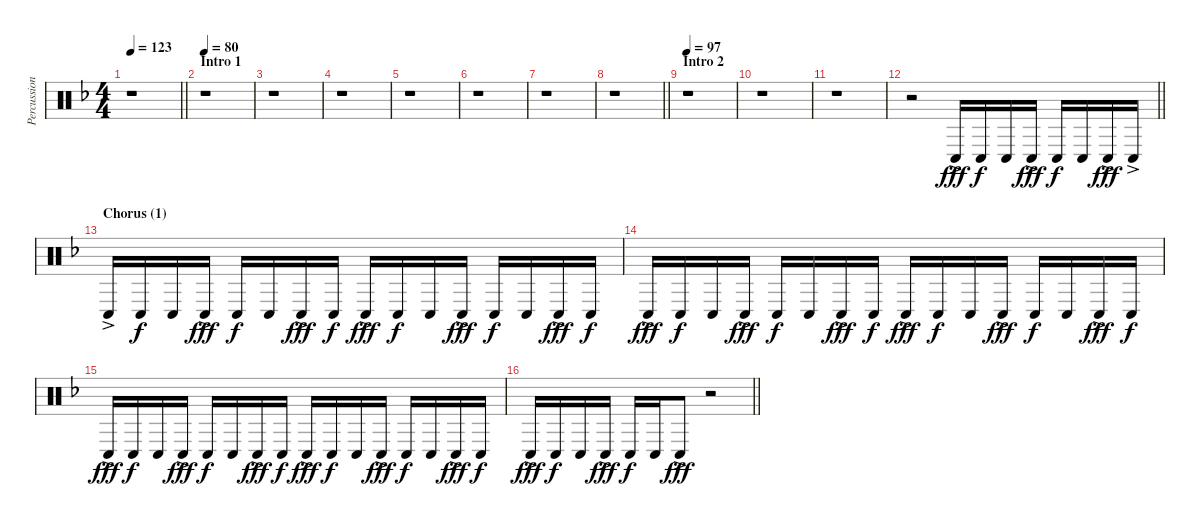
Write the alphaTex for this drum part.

\track ("Percussion" "Percussion") {instrument percussion}
\staff {score}
\articulation defaults
\ts (4 4)
\tempo 123
\clef neutral
\barLineRight lightlight
\ks dminor
r.1{dy fff} |
\section ("" "Intro 1")
\tempo 80
r.1 |
r.1 |
r.1 |
r.1 |
r.1 |
r.1 |
\barLineRight lightlight
r.1 |
\section ("" "Intro 2")
\tempo 97
r.1 |
r.1 |
r.1 |
\barLineRight lightlight
r.2 "Conga low (hit)"{ac}.16 "Conga low (hit)".16{dy f} "Conga low (hit)".16 "Conga low (hit)"{ac}.16{dy fff} "Conga low (hit)".16{dy f} "Conga low (hit)".16 "Conga low (hit)"{ac}.16{dy fff} "Conga low (hit)"{ac}.16 |
\section ("" "Chorus (1)")
"Conga low (hit)"{ac}.16 "Conga low (hit)".16{dy f} "Conga low (hit)".16 "Conga low (hit)"{ac}.16{dy fff} "Conga low (hit)".16{dy f} "Conga low (hit)".16 "Conga low (hit)"{ac}.16{dy fff} "Conga low (hit)".16{dy f} "Conga low (hit)"{ac}.16{dy fff} "Conga low (hit)".16{dy f} "Conga low (hit)".16 "Conga low (hit)"{ac}.16{dy fff} "Conga low (hit)".16{dy f} "Conga low (hit)".16 "Conga low (hit)"{ac}.16{dy fff} "Conga low (hit)".16{dy f} |
"Conga low (hit)"{ac}.16{dy fff} "Conga low (hit)".16{dy f} "Conga low (hit)".16 "Conga low (hit)"{ac}.16{dy fff} "Conga low (hit)".16{dy f} "Conga low (hit)".16 "Conga low (hit)"{ac}.16{dy fff} "Conga low (hit)".16{dy f} "Conga low (hit)"{ac}.16{dy fff} "Conga low (hit)".16{dy f} "Conga low (hit)".16 "Conga low (hit)"{ac}.16{dy fff} "Conga low (hit)".16{dy f} "Conga low (hit)".16 "Conga low (hit)"{ac}.16{dy fff} "Conga low (hit)".16{dy f} |
"Conga low (hit)"{ac}.16{dy fff} "Conga low (hit)".16{dy f} "Conga low (hit)".16 "Conga low (hit)"{ac}.16{dy fff} "Conga low (hit)".16{dy f} "Conga low (hit)".16 "Conga low (hit)"{ac}.16{dy fff} "Conga low (hit)".16{dy f} "Conga low (hit)"{ac}.16{dy fff} "Conga low (hit)".16{dy f} "Conga low (hit)".16 "Conga low (hit)"{ac}.16{dy fff} "Conga low (hit)".16{dy f} "Conga low (hit)".16 "Conga low (hit)"{ac}.16{dy fff} "Conga low (hit)".16{dy f} |
\barLineRight lightlight "Conga low (hit)"{ac}.16{dy fff} "Conga low (hit)".16{dy f} "Conga low (hit)".16 "Conga low (hit)"{ac}.16{dy fff} "Conga low (hit)".16{dy f} "Conga low (hit)".16 "Conga low (hit)"{ac}.8{dy fff}
r.2
